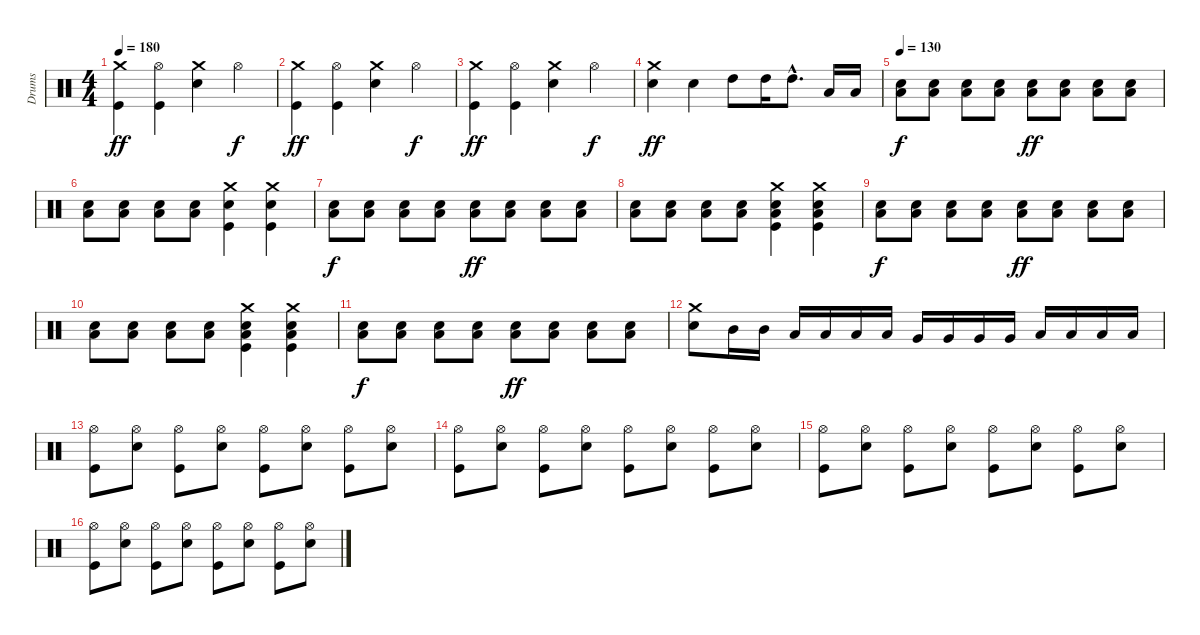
\track ("Drums" "Drums") {instrument percussion}
\staff {score}
\articulation defaults
\ts (4 4)
\tempo 180
\clef neutral
\ks c
("Crash medium (hit)" "Kick (hit)").4{dy ff} ("Hi-Hat (open)" "Kick (hit)").4 ("Crash medium (hit)" "Electric Snare (hit)").4 "Hi-Hat (open)".4{dy f} |
("Crash medium (hit)" "Kick (hit)").4{dy ff} ("Hi-Hat (open)" "Kick (hit)").4 ("Crash medium (hit)" "Electric Snare (hit)").4 "Hi-Hat (open)".4{dy f} |
("Crash medium (hit)" "Kick (hit)").4{dy ff} ("Hi-Hat (open)" "Kick (hit)").4 ("Crash medium (hit)" "Electric Snare (hit)").4 "Hi-Hat (open)".4{dy f} |
("Crash medium (hit)" "Electric Snare (hit)").4{dy ff} "Electric Snare (hit)".4 "High Tom (hit)".8 "High Tom (hit)".16 "High Tom (hit)"{hac}.8{d} "Low Tom (hit)".16 "Low Tom (hit)".16 |
\tempo 130
("Low Floor Tom (hit)" "Electric Snare (hit)").8{dy f} ("Low Floor Tom (hit)" "Electric Snare (hit)").8 ("Low Floor Tom (hit)" "Electric Snare (hit)").8 ("Low Floor Tom (hit)" "Electric Snare (hit)").8 ("Low Floor Tom (hit)" "Electric Snare (hit)").8{dy ff} ("Low Floor Tom (hit)" "Electric Snare (hit)").8 ("Low Floor Tom (hit)" "Electric Snare (hit)").8 ("Low Floor Tom (hit)" "Electric Snare (hit)").8 |
("Low Floor Tom (hit)" "Electric Snare (hit)").8 ("Low Floor Tom (hit)" "Electric Snare (hit)").8 ("Low Floor Tom (hit)" "Electric Snare (hit)").8 ("Low Floor Tom (hit)" "Electric Snare (hit)").8 ("Crash medium (hit)" "Electric Snare (hit)" "Kick (hit)").4 ("Crash medium (hit)" "Electric Snare (hit)" "Kick (hit)").4 |
("Low Floor Tom (hit)" "Electric Snare (hit)").8{dy f} ("Low Floor Tom (hit)" "Electric Snare (hit)").8 ("Low Floor Tom (hit)" "Electric Snare (hit)").8 ("Low Floor Tom (hit)" "Electric Snare (hit)").8 ("Low Floor Tom (hit)" "Electric Snare (hit)").8{dy ff} ("Low Floor Tom (hit)" "Electric Snare (hit)").8 ("Low Floor Tom (hit)" "Electric Snare (hit)").8 ("Low Floor Tom (hit)" "Electric Snare (hit)").8 |
("Low Floor Tom (hit)" "Electric Snare (hit)").8 ("Low Floor Tom (hit)" "Electric Snare (hit)").8 ("Low Floor Tom (hit)" "Electric Snare (hit)").8 ("Low Floor Tom (hit)" "Electric Snare (hit)").8 ("Crash medium (hit)" "Low Floor Tom (hit)" "Electric Snare (hit)" "Kick (hit)").4 ("Crash medium (hit)" "Low Floor Tom (hit)" "Electric Snare (hit)" "Kick (hit)").4 |
("Low Floor Tom (hit)" "Electric Snare (hit)").8{dy f} ("Low Floor Tom (hit)" "Electric Snare (hit)").8 ("Low Floor Tom (hit)" "Electric Snare (hit)").8 ("Low Floor Tom (hit)" "Electric Snare (hit)").8 ("Low Floor Tom (hit)" "Electric Snare (hit)").8{dy ff} ("Low Floor Tom (hit)" "Electric Snare (hit)").8 ("Low Floor Tom (hit)" "Electric Snare (hit)").8 ("Low Floor Tom (hit)" "Electric Snare (hit)").8 |
("Low Floor Tom (hit)" "Electric Snare (hit)").8 ("Low Floor Tom (hit)" "Electric Snare (hit)").8 ("Low Floor Tom (hit)" "Electric Snare (hit)").8 ("Low Floor Tom (hit)" "Electric Snare (hit)").8 ("Crash medium (hit)" "Low Floor Tom (hit)" "Electric Snare (hit)" "Kick (hit)").4 ("Crash medium (hit)" "Low Floor Tom (hit)" "Electric Snare (hit)" "Kick (hit)").4 |
("Low Floor Tom (hit)" "Electric Snare (hit)").8{dy f} ("Low Floor Tom (hit)" "Electric Snare (hit)").8 ("Low Floor Tom (hit)" "Electric Snare (hit)").8 ("Low Floor Tom (hit)" "Electric Snare (hit)").8 ("Low Floor Tom (hit)" "Electric Snare (hit)").8{dy ff} ("Low Floor Tom (hit)" "Electric Snare (hit)").8 ("Low Floor Tom (hit)" "Electric Snare (hit)").8 ("Low Floor Tom (hit)" "Electric Snare (hit)").8 |
("Crash medium (hit)" "Electric Snare (hit)").8 "Mid Tom (hit)".16 "Mid Tom (hit)".16 "Low Tom (hit)".16 "Low Tom (hit)".16 "Low Tom (hit)".16 "Low Tom (hit)".16 "Very Low Tom (hit)".16 "Very Low Tom (hit)".16 "Very Low Tom (hit)".16 "Very Low Tom (hit)".16 "Low Floor Tom (hit)".16 "Low Floor Tom (hit)".16 "Low Floor Tom (hit)".16 "Low Floor Tom (hit)".16 |
("Hi-Hat (open)" "Kick (hit)").8 ("Hi-Hat (open)" "Electric Snare (hit)").8 ("Hi-Hat (open)" "Kick (hit)").8 ("Hi-Hat (open)" "Electric Snare (hit)").8 ("Hi-Hat (open)" "Kick (hit)").8 ("Hi-Hat (open)" "Electric Snare (hit)").8 ("Hi-Hat (open)" "Kick (hit)").8 ("Hi-Hat (open)" "Electric Snare (hit)").8 |
("Hi-Hat (open)" "Kick (hit)").8 ("Hi-Hat (open)" "Electric Snare (hit)").8 ("Hi-Hat (open)" "Kick (hit)").8 ("Hi-Hat (open)" "Electric Snare (hit)").8 ("Hi-Hat (open)" "Kick (hit)").8 ("Hi-Hat (open)" "Electric Snare (hit)").8 ("Hi-Hat (open)" "Kick (hit)").8 ("Hi-Hat (open)" "Electric Snare (hit)").8 |
("Hi-Hat (open)" "Kick (hit)").8 ("Hi-Hat (open)" "Electric Snare (hit)").8 ("Hi-Hat (open)" "Kick (hit)").8 ("Hi-Hat (open)" "Electric Snare (hit)").8 ("Hi-Hat (open)" "Kick (hit)").8 ("Hi-Hat (open)" "Electric Snare (hit)").8 ("Hi-Hat (open)" "Kick (hit)").8 ("Hi-Hat (open)" "Electric Snare (hit)").8 |
("Hi-Hat (open)" "Kick (hit)").8 ("Hi-Hat (open)" "Electric Snare (hit)").8 ("Hi-Hat (open)" "Kick (hit)").8 ("Hi-Hat (open)" "Electric Snare (hit)").8 ("Hi-Hat (open)" "Kick (hit)").8 ("Hi-Hat (open)" "Electric Snare (hit)").8 ("Hi-Hat (open)" "Kick (hit)").8 ("Hi-Hat (open)" "Electric Snare (hit)").8
